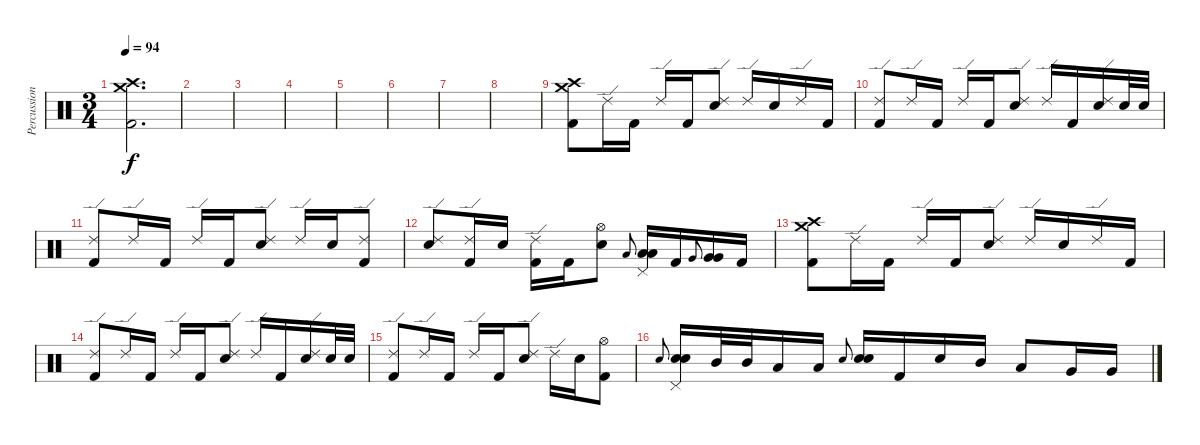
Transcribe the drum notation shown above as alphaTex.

\track ("Percussion" "Percussion") {instrument percussion}
\staff {score}
\articulation defaults
\ts (3 4)
\tempo 94
\clef neutral
\ks c
("Crash medium (hit)" "Crash high (hit)" "Kick (hit) 2").2{d dy f} |
|
|
|
|
|
|
|
("Crash medium (hit)" "Crash high (hit)" "Kick (hit) 2").8 "Ride (edge) 2".16 "Kick (hit) 2".16 "Ride (edge) 2".16 "Kick (hit) 2".16 ("Ride (edge) 2" "Electric Snare (hit)").8 "Ride (edge) 2".16 "Electric Snare (hit)".16 "Ride (edge) 2".16 "Kick (hit) 2".16 |
("Ride (edge) 2" "Kick (hit) 2").8 "Ride (edge) 2".16 "Kick (hit) 2".16 "Ride (edge) 2".16 "Kick (hit) 2".16 ("Ride (edge) 2" "Electric Snare (hit)").8 "Ride (edge) 2".16 "Kick (hit) 2".16 ("Ride (edge) 2" "Electric Snare (hit)").16 "Electric Snare (hit)".32 "Electric Snare (hit)".32 |
("Ride (edge) 2" "Kick (hit) 2").8 "Ride (edge) 2".16 "Kick (hit) 2".16 "Ride (edge) 2".16 "Kick (hit) 2".16 ("Ride (edge) 2" "Electric Snare (hit)").8 "Ride (edge) 2".16 "Electric Snare (hit)".16 ("Ride (edge) 2" "Kick (hit) 2").8 |
("Ride (edge) 2" "Electric Snare (hit)").8 ("Ride (edge) 2" "Kick (hit) 2").16 "Electric Snare (hit)".16 ("Ride (edge) 2" "Kick (hit) 2").16 "Kick (hit) 2".16 ("Hi-Hat (open)" "Electric Snare (hit)").8 "Low Tom (hit)".8{gr onbeat} ("Pedal Hi-Hat (hit)" "Low Tom (hit)" "Low Tom (hit)").16 "Kick (hit) 2".16 "Very Low Tom (hit)".8{gr onbeat} ("Very Low Tom (hit)" "Very Low Tom (hit)").16 "Kick (hit) 2".16 |
("Crash medium (hit)" "Crash high (hit)" "Kick (hit) 2").8 "Ride (edge) 2".16 "Kick (hit) 2".16 "Ride (edge) 2".16 "Kick (hit) 2".16 ("Ride (edge) 2" "Electric Snare (hit)").8 "Ride (edge) 2".16 "Electric Snare (hit)".16 "Ride (edge) 2".16 "Kick (hit) 2".16 |
("Ride (edge) 2" "Kick (hit) 2").8 "Ride (edge) 2".16 "Kick (hit) 2".16 "Ride (edge) 2".16 "Kick (hit) 2".16 ("Ride (edge) 2" "Electric Snare (hit)").8 "Ride (edge) 2".16 "Kick (hit) 2".16 ("Ride (edge) 2" "Electric Snare (hit)").16 "Electric Snare (hit)".32 "Electric Snare (hit)".32 |
("Ride (edge) 2" "Kick (hit) 2").8 "Ride (edge) 2".16 "Kick (hit) 2".16 "Ride (edge) 2".16 "Kick (hit) 2".16 ("Ride (edge) 2" "Electric Snare (hit)").8 "Ride (edge) 2".16 "Electric Snare (hit)".16 ("Hi-Hat (open)" "Kick (hit) 2").8 |
"Electric Snare (hit)".8{gr onbeat} ("Pedal Hi-Hat (hit)" "Electric Snare (hit)" "Electric Snare (hit)").16 "Mid Tom (hit)".32 "Mid Tom (hit)".32 "Low Tom (hit)".16 "Low Tom (hit)".16 "Electric Snare (hit)".8{gr onbeat} ("Electric Snare (hit)" "Electric Snare (hit)").16 "Kick (hit) 2".16 "Electric Snare (hit)".16 "Mid Tom (hit)".16 "Low Tom (hit)".8 "Very Low Tom (hit)".16 "Very Low Tom (hit)".16
